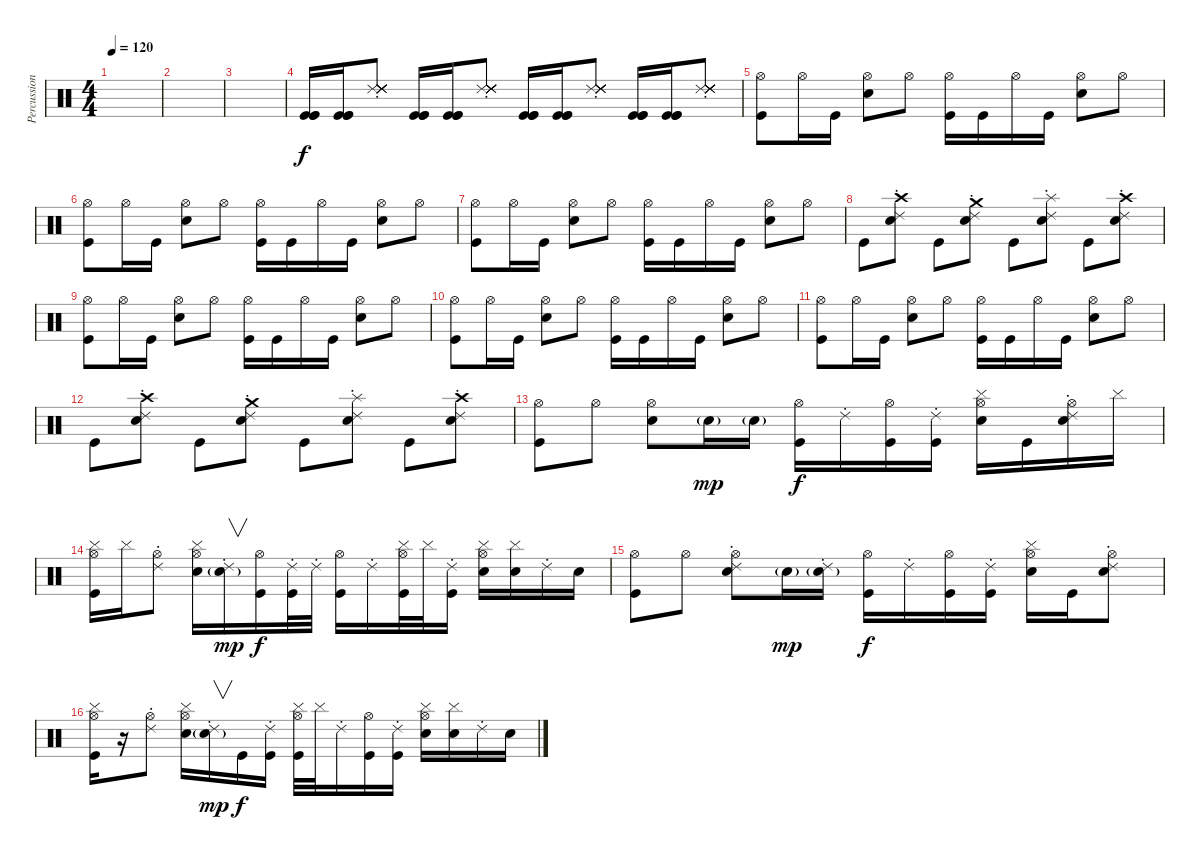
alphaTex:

\track ("Percussion" "Percussion") {instrument percussion}
\staff {score}
\articulation defaults
\ts (4 4)
\tempo 120
\clef neutral
\ks c
|
|
|
("Kick (hit)" "Kick (hit)" "Kick (hit)").16 ("Kick (hit)" "Kick (hit)" "Kick (hit)").16 ("Ride (choke) 2" "Ride (choke) 2" "Ride (choke) 2" "Ride (choke) 2" "Ride (choke) 2" "Ride (choke) 2").8 ("Kick (hit)" "Kick (hit)" "Kick (hit)").16 ("Kick (hit)" "Kick (hit)" "Kick (hit)").16 ("Ride (choke) 2" "Ride (choke) 2" "Ride (choke) 2" "Ride (choke) 2" "Ride (choke) 2" "Ride (choke) 2").8 ("Kick (hit)" "Kick (hit)" "Kick (hit)").16 ("Kick (hit)" "Kick (hit)" "Kick (hit)").16 ("Ride (choke) 2" "Ride (choke) 2" "Ride (choke) 2" "Ride (choke) 2" "Ride (choke) 2" "Ride (choke) 2").8 ("Kick (hit)" "Kick (hit)" "Kick (hit)").16 ("Kick (hit)" "Kick (hit)" "Kick (hit)").16 ("Ride (choke) 2" "Ride (choke) 2" "Ride (choke) 2" "Ride (choke) 2" "Ride (choke) 2" "Ride (choke) 2").8 |
("Hi-Hat (open)" "Kick (hit)").8 "Hi-Hat (open)".16 "Kick (hit)".16 ("Hi-Hat (open)" "Snare (hit) 2").8 "Hi-Hat (open)".8 ("Hi-Hat (open)" "Kick (hit)").16 "Kick (hit)".16 "Hi-Hat (open)".16 "Kick (hit)".16 ("Hi-Hat (open)" "Snare (hit) 2").8 "Hi-Hat (open)".8 |
("Hi-Hat (open)" "Kick (hit)").8 "Hi-Hat (open)".16 "Kick (hit)".16 ("Hi-Hat (open)" "Snare (hit) 2").8 "Hi-Hat (open)".8 ("Hi-Hat (open)" "Kick (hit)").16 "Kick (hit)".16 "Hi-Hat (open)".16 "Kick (hit)".16 ("Hi-Hat (open)" "Snare (hit) 2").8 "Hi-Hat (open)".8 |
("Hi-Hat (open)" "Kick (hit)").8 "Hi-Hat (open)".16 "Kick (hit)".16 ("Hi-Hat (open)" "Snare (hit) 2").8 "Hi-Hat (open)".8 ("Hi-Hat (open)" "Kick (hit)").16 "Kick (hit)".16 "Hi-Hat (open)".16 "Kick (hit)".16 ("Hi-Hat (open)" "Snare (hit) 2").8 "Hi-Hat (open)".8 |
"Kick (hit)".8 ("Crash high (hit)" "Ride (choke) 2" "Snare (hit) 2").8 "Kick (hit)".8 ("Crash medium (hit)" "Ride (choke) 2" "Snare (hit) 2").8 "Kick (hit)".8 ("Splash (hit)" "Snare (hit) 2" "Ride (choke) 2").8 "Kick (hit)".8 ("Crash high (hit)" "Snare (hit) 2" "Ride (choke) 2").8 |
("Hi-Hat (open)" "Kick (hit)").8 "Hi-Hat (open)".16 "Kick (hit)".16 ("Hi-Hat (open)" "Snare (hit) 2").8 "Hi-Hat (open)".8 ("Hi-Hat (open)" "Kick (hit)").16 "Kick (hit)".16 "Hi-Hat (open)".16 "Kick (hit)".16 ("Hi-Hat (open)" "Snare (hit) 2").8 "Hi-Hat (open)".8 |
("Hi-Hat (open)" "Kick (hit)").8 "Hi-Hat (open)".16 "Kick (hit)".16 ("Hi-Hat (open)" "Snare (hit) 2").8 "Hi-Hat (open)".8 ("Hi-Hat (open)" "Kick (hit)").16 "Kick (hit)".16 "Hi-Hat (open)".16 "Kick (hit)".16 ("Hi-Hat (open)" "Snare (hit) 2").8 "Hi-Hat (open)".8 |
("Hi-Hat (open)" "Kick (hit)").8 "Hi-Hat (open)".16 "Kick (hit)".16 ("Hi-Hat (open)" "Snare (hit) 2").8 "Hi-Hat (open)".8 ("Hi-Hat (open)" "Kick (hit)").16 "Kick (hit)".16 "Hi-Hat (open)".16 "Kick (hit)".16 ("Hi-Hat (open)" "Snare (hit) 2").8 "Hi-Hat (open)".8 |
"Kick (hit)".8 ("Crash high (hit)" "Snare (hit) 2" "Ride (choke) 2").8 "Kick (hit)".8 ("Crash medium (hit)" "Snare (hit) 2" "Ride (choke) 2").8 "Kick (hit)".8 ("Splash (hit)" "Snare (hit) 2" "Ride (choke) 2").8 "Kick (hit)".8 ("Crash high (hit)" "Snare (hit) 2" "Ride (choke) 2").8 |
("Hi-Hat (open)" "Kick (hit)").8 "Hi-Hat (open)".8 ("Hi-Hat (open)" "Snare (hit) 2").8 "Snare (hit) 2"{g}.16{dy mp} "Snare (hit) 2"{g}.16 ("Hi-Hat (open)" "Kick (hit)").16{dy f} "Ride (choke) 2".16 ("Hi-Hat (open)" "Kick (hit)").16 ("Ride (choke) 2" "Kick (hit)").16 ("Hi-Hat (open)" "Snare (hit) 2" "Cymbal (hit)").16 "Kick (hit)".16 ("Hi-Hat (open)" "Snare (hit) 2" "Ride (choke) 2").16 "Cymbal (hit)".16 |
("Hi-Hat (open)" "Cymbal (hit)" "Kick (hit)").16 "Cymbal (hit)".16 ("Hi-Hat (open)" "Ride (choke) 2").8 ("Hi-Hat (open)" "Snare (hit) 2" "Cymbal (hit)").16 ("Snare (hit) 2"{g} "Ride (choke) 2").16{v dy mp} ("Hi-Hat (open)" "Kick (hit)").16{dy f} ("Ride (choke) 2" "Kick (hit)").32 "Ride (choke) 2".32 ("Hi-Hat (open)" "Kick (hit)").16 "Ride (choke) 2".16 ("Hi-Hat (open)" "Cymbal (hit)" "Kick (hit)").32 "Cymbal (hit)".32 ("Ride (choke) 2" "Kick (hit)").16 ("Hi-Hat (open)" "Snare (hit) 2" "Cymbal (hit)").16 ("Snare (hit) 2" "Cymbal (hit)").16 "Ride (choke) 2".16 "Snare (hit) 2".16 |
("Hi-Hat (open)" "Kick (hit)").8 "Hi-Hat (open)".8 ("Hi-Hat (open)" "Snare (hit) 2" "Ride (choke) 2").8 "Snare (hit) 2"{g}.16{dy mp} ("Snare (hit) 2"{g} "Ride (choke) 2").16 ("Hi-Hat (open)" "Kick (hit)").16{dy f} "Ride (choke) 2".16 ("Hi-Hat (open)" "Kick (hit)").16 ("Ride (choke) 2" "Kick (hit)").16 ("Hi-Hat (open)" "Snare (hit) 2" "Cymbal (hit)").16 "Kick (hit)".16 ("Hi-Hat (open)" "Snare (hit) 2" "Ride (choke) 2").8 |
("Hi-Hat (open)" "Cymbal (hit)" "Kick (hit)").16 r.16 ("Hi-Hat (open)" "Ride (choke) 2").8 ("Hi-Hat (open)" "Snare (hit) 2" "Cymbal (hit)").16 ("Snare (hit) 2"{g} "Ride (choke) 2").16{v dy mp} "Kick (hit)".16{dy f} ("Ride (choke) 2" "Kick (hit)").16 ("Hi-Hat (open)" "Cymbal (hit)" "Kick (hit)").32 "Cymbal (hit)".32 "Ride (choke) 2".16 ("Hi-Hat (open)" "Kick (hit)").16 ("Ride (choke) 2" "Kick (hit)").16 ("Hi-Hat (open)" "Snare (hit) 2" "Cymbal (hit)").16 ("Snare (hit) 2" "Cymbal (hit)").16 "Ride (choke) 2".16 "Snare (hit) 2".16
